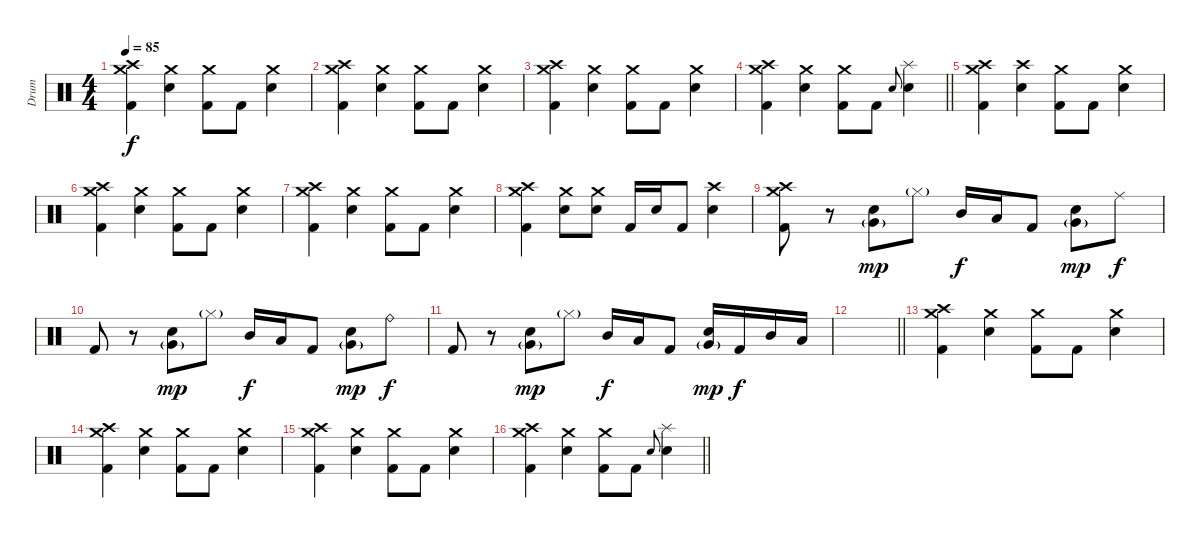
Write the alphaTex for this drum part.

\track ("Drum" "Drum") {instrument percussion}
\staff {score}
\articulation defaults
\ts (4 4)
\section ("" "")
\tempo 85
\clef neutral
\ks c
("Crash high (hit)" "Crash medium (hit)" "Kick (hit) 2").4{dy f} ("Crash medium (hit)" "Electric Snare (hit)").4 ("Crash medium (hit)" "Kick (hit) 2").8 "Kick (hit) 2".8 ("Crash medium (hit)" "Electric Snare (hit)").4 |
("Crash high (hit)" "Crash medium (hit)" "Kick (hit) 2").4 ("Crash medium (hit)" "Electric Snare (hit)").4 ("Crash medium (hit)" "Kick (hit) 2").8 "Kick (hit) 2".8 ("Crash medium (hit)" "Electric Snare (hit)").4 |
("Crash high (hit)" "Crash medium (hit)" "Kick (hit) 2").4 ("Crash medium (hit)" "Electric Snare (hit)").4 ("Crash medium (hit)" "Kick (hit) 2").8 "Kick (hit) 2".8 ("Crash medium (hit)" "Electric Snare (hit)").4 |
\barLineRight lightlight
("Crash high (hit)" "Crash medium (hit)" "Kick (hit) 2").4 ("Crash medium (hit)" "Electric Snare (hit)").4 ("Crash medium (hit)" "Kick (hit) 2").8 "Kick (hit) 2".8 "Electric Snare (hit)".8{gr onbeat} ("Splash (hit)" "Electric Snare (hit)").4 |
("Crash high (hit)" "Crash medium (hit)" "Kick (hit) 2").4 ("Crash high (hit)" "Electric Snare (hit)").4 ("Crash medium (hit)" "Kick (hit) 2").8 "Kick (hit) 2".8 ("Crash medium (hit)" "Electric Snare (hit)").4 |
("Crash high (hit)" "Crash medium (hit)" "Kick (hit) 2").4 ("Crash medium (hit)" "Electric Snare (hit)").4 ("Crash medium (hit)" "Kick (hit) 2").8 "Kick (hit) 2".8 ("Crash medium (hit)" "Electric Snare (hit)").4 |
("Crash high (hit)" "Crash medium (hit)" "Kick (hit) 2").4 ("Crash medium (hit)" "Electric Snare (hit)").4 ("Crash medium (hit)" "Kick (hit) 2").8 "Kick (hit) 2".8 ("Crash medium (hit)" "Electric Snare (hit)").4 |
("Crash high (hit)" "Crash medium (hit)" "Kick (hit) 2").4 ("Crash medium (hit)" "Electric Snare (hit)").8 ("Crash medium (hit)" "Electric Snare (hit)").8 "Kick (hit) 2".16 "Electric Snare (hit)".16 "Kick (hit) 2".8 ("Crash high (hit)" "Electric Snare (hit)").4 |
\section ("" "")
("Crash medium (hit)" "Crash high (hit)" "Kick (hit) 2").8 r.8 ("Very Low Tom (hit)"{g} "Electric Snare (hit)").8{dy mp} "Hi-Hat (closed)"{g}.8 "Mid Tom (hit)".16{dy f} "Low Tom (hit)".16 "Kick (hit) 2".8 ("Very Low Tom (hit)"{g} "Electric Snare (hit)").8{dy mp} "Ride (middle)".8{dy f} |
"Kick (hit) 2".8 r.8 ("Very Low Tom (hit)"{g} "Electric Snare (hit)").8{dy mp} "Hi-Hat (closed)"{g}.8 "Mid Tom (hit)".16{dy f} "Low Tom (hit)".16 "Kick (hit) 2".8 ("Very Low Tom (hit)"{g} "Electric Snare (hit)").8{dy mp} "Ride (bell)".8{dy f} |
"Kick (hit) 2".8 r.8 ("Very Low Tom (hit)"{g} "Electric Snare (hit)").8{dy mp} "Hi-Hat (closed)"{g}.8 "Mid Tom (hit)".16{dy f} "Low Tom (hit)".16 "Kick (hit) 2".8 ("Very Low Tom (hit)"{g} "Electric Snare (hit)").16{dy mp} "Kick (hit) 2".16{dy f} "Mid Tom (hit)".16 "Low Tom (hit)".16 |
\barLineRight lightlight
|
\section ("" "")
("Crash high (hit)" "Crash medium (hit)" "Kick (hit) 2").4 ("Crash medium (hit)" "Electric Snare (hit)").4 ("Crash medium (hit)" "Kick (hit) 2").8 "Kick (hit) 2".8 ("Crash medium (hit)" "Electric Snare (hit)").4 |
("Crash high (hit)" "Crash medium (hit)" "Kick (hit) 2").4 ("Crash medium (hit)" "Electric Snare (hit)").4 ("Crash medium (hit)" "Kick (hit) 2").8 "Kick (hit) 2".8 ("Crash medium (hit)" "Electric Snare (hit)").4 |
("Crash high (hit)" "Crash medium (hit)" "Kick (hit) 2").4 ("Crash medium (hit)" "Electric Snare (hit)").4 ("Crash medium (hit)" "Kick (hit) 2").8 "Kick (hit) 2".8 ("Crash medium (hit)" "Electric Snare (hit)").4 |
\barLineRight lightlight
("Crash high (hit)" "Crash medium (hit)" "Kick (hit) 2").4 ("Crash medium (hit)" "Electric Snare (hit)").4 ("Crash medium (hit)" "Kick (hit) 2").8 "Kick (hit) 2".8 "Electric Snare (hit)".8{gr onbeat} ("Splash (hit)" "Electric Snare (hit)").4
